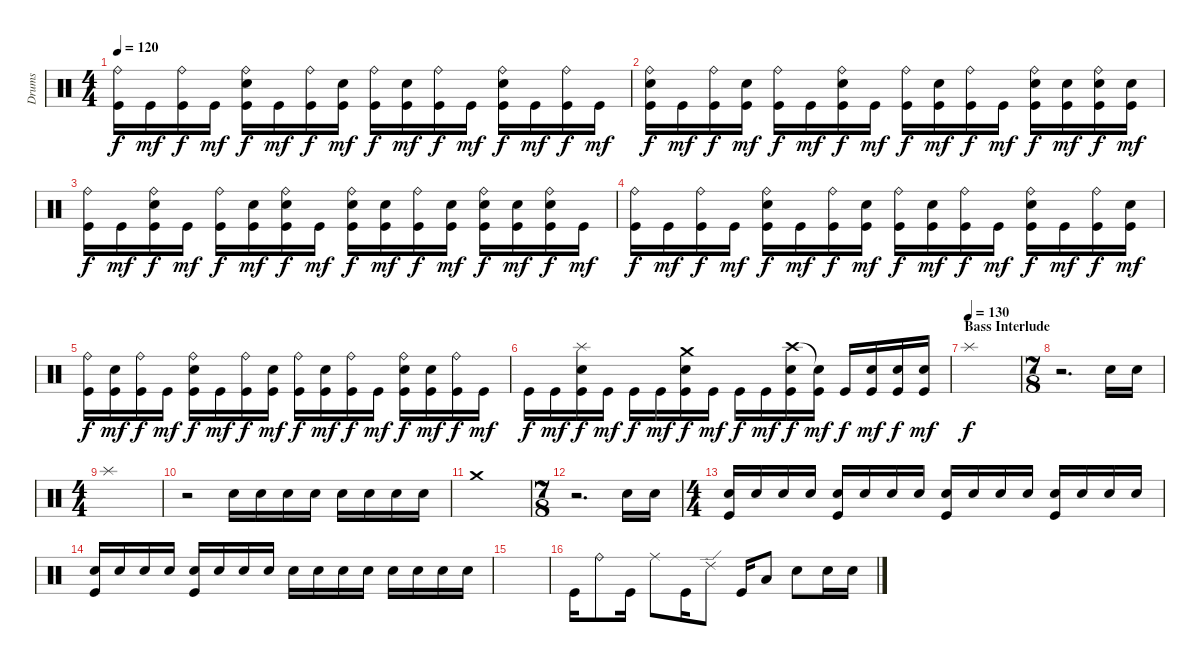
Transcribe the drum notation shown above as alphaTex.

\track ("Drums" "Drums") {instrument percussion}
\staff {score}
\articulation defaults
\ts (4 4)
\tempo 120
\clef neutral
\ks c
("Ride (bell)" "Kick (hit)").16{dy f} "Kick (hit)".16{dy mf} ("Ride (bell)" "Kick (hit)").16{dy f} "Kick (hit)".16{dy mf} ("Ride (bell)" "Snare (hit) 2" "Kick (hit)").16{dy f} "Kick (hit)".16{dy mf} ("Ride (bell)" "Kick (hit)").16{dy f} ("Snare (hit) 2" "Kick (hit)").16{dy mf} ("Ride (bell)" "Kick (hit)").16{dy f} ("Snare (hit) 2" "Kick (hit)").16{dy mf} ("Ride (bell)" "Kick (hit)").16{dy f} "Kick (hit)".16{dy mf} ("Ride (bell)" "Snare (hit) 2" "Kick (hit)").16{dy f} "Kick (hit)".16{dy mf} ("Ride (bell)" "Kick (hit)").16{dy f} "Kick (hit)".16{dy mf} |
("Ride (bell)" "Snare (hit) 2" "Kick (hit)").16{dy f} "Kick (hit)".16{dy mf} ("Ride (bell)" "Kick (hit)").16{dy f} ("Snare (hit) 2" "Kick (hit)").16{dy mf} ("Ride (bell)" "Kick (hit)").16{dy f} "Kick (hit)".16{dy mf} ("Ride (bell)" "Snare (hit) 2" "Kick (hit)").16{dy f} "Kick (hit)".16{dy mf} ("Ride (bell)" "Kick (hit)").16{dy f} ("Snare (hit) 2" "Kick (hit)").16{dy mf} ("Ride (bell)" "Kick (hit)").16{dy f} "Kick (hit)".16{dy mf} ("Ride (bell)" "Snare (hit) 2" "Kick (hit)").16{dy f} ("Snare (hit) 2" "Kick (hit)").16{dy mf} ("Ride (bell)" "Snare (hit) 2" "Kick (hit)").16{dy f} ("Snare (hit) 2" "Kick (hit)").16{dy mf} |
("Ride (bell)" "Kick (hit)").16{dy f} "Kick (hit)".16{dy mf} ("Ride (bell)" "Snare (hit) 2" "Kick (hit)").16{dy f} "Kick (hit)".16{dy mf} ("Ride (bell)" "Kick (hit)").16{dy f} ("Snare (hit) 2" "Kick (hit)").16{dy mf} ("Ride (bell)" "Snare (hit) 2" "Kick (hit)").16{dy f} "Kick (hit)".16{dy mf} ("Ride (bell)" "Snare (hit) 2" "Kick (hit)").16{dy f} ("Snare (hit) 2" "Kick (hit)").16{dy mf} ("Ride (bell)" "Kick (hit)").16{dy f} ("Snare (hit) 2" "Kick (hit)").16{dy mf} ("Ride (bell)" "Snare (hit) 2" "Kick (hit)").16{dy f} ("Snare (hit) 2" "Kick (hit)").16{dy mf} ("Ride (bell)" "Snare (hit) 2" "Kick (hit)").16{dy f} "Kick (hit)".16{dy mf} |
("Ride (bell)" "Kick (hit)").16{dy f} "Kick (hit)".16{dy mf} ("Ride (bell)" "Kick (hit)").16{dy f} "Kick (hit)".16{dy mf} ("Ride (bell)" "Snare (hit) 2" "Kick (hit)").16{dy f} "Kick (hit)".16{dy mf} ("Ride (bell)" "Kick (hit)").16{dy f} ("Snare (hit) 2" "Kick (hit)").16{dy mf} ("Ride (bell)" "Kick (hit)").16{dy f} ("Snare (hit) 2" "Kick (hit)").16{dy mf} ("Ride (bell)" "Kick (hit)").16{dy f} "Kick (hit)".16{dy mf} ("Ride (bell)" "Snare (hit) 2" "Kick (hit)").16{dy f} "Kick (hit)".16{dy mf} ("Ride (bell)" "Kick (hit)").16{dy f} ("Snare (hit) 2" "Kick (hit)").16{dy mf} |
("Ride (bell)" "Kick (hit)").16{dy f} ("Snare (hit) 2" "Kick (hit)").16{dy mf} ("Ride (bell)" "Kick (hit)").16{dy f} "Kick (hit)".16{dy mf} ("Ride (bell)" "Snare (hit) 2" "Kick (hit)").16{dy f} "Kick (hit)".16{dy mf} ("Ride (bell)" "Kick (hit)").16{dy f} ("Snare (hit) 2" "Kick (hit)").16{dy mf} ("Ride (bell)" "Kick (hit)").16{dy f} ("Snare (hit) 2" "Kick (hit)").16{dy mf} ("Ride (bell)" "Kick (hit)").16{dy f} "Kick (hit)".16{dy mf} ("Ride (bell)" "Snare (hit) 2" "Kick (hit)").16{dy f} ("Snare (hit) 2" "Kick (hit)").16{dy mf} ("Ride (bell)" "Kick (hit)").16{dy f} "Kick (hit)".16{dy mf} |
"Kick (hit)".16{dy f} "Kick (hit)".16{dy mf} ("Splash (hit)" "Snare (hit) 2" "Kick (hit)").16{dy f} "Kick (hit)".16{dy mf} "Kick (hit)".16{dy f} "Kick (hit)".16{dy mf} ("Crash medium (hit)" "Snare (hit) 2" "Kick (hit)").16{dy f} "Kick (hit)".16{dy mf} "Kick (hit)".16{dy f} "Kick (hit)".16{dy mf} ("Crash high (hit)" "Snare (hit) 2" "Kick (hit)").16{dy f} ("Snare (hit)"{t} "Kick (hit)").16{dy mf} "Kick (hit)".16{dy f} ("Snare (hit) 2" "Kick (hit)").16{dy mf} ("Snare (hit) 2" "Kick (hit)").16{dy f} ("Snare (hit) 2" "Kick (hit)").16{dy mf} |
\section ("" "Bass Interlude")
\tempo (130)
"Splash (hit)".1{dy f} |
\ts (7 8)
r.2{d} "Snare (hit) 2".16 "Snare (hit) 2".16 |
\ts (4 4)
"Splash (hit)".1 |
r.2 "Snare (hit) 2".16 "Snare (hit) 2".16 "Snare (hit) 2".16 "Snare (hit) 2".16 "Snare (hit) 2".16 "Snare (hit) 2".16 "Snare (hit) 2".16 "Snare (hit) 2".16 |
"Crash medium (hit)".1 |
\ts (7 8)
r.2{d} "Snare (hit) 2".16 "Snare (hit) 2".16 |
\ts (4 4)
("Snare (hit) 2" "Kick (hit)").16 "Snare (hit) 2".16 "Snare (hit) 2".16 "Snare (hit) 2".16 ("Snare (hit) 2" "Kick (hit)").16 "Snare (hit) 2".16 "Snare (hit) 2".16 "Snare (hit) 2".16 ("Snare (hit) 2" "Kick (hit)").16 "Snare (hit) 2".16 "Snare (hit) 2".16 "Snare (hit) 2".16 ("Snare (hit) 2" "Kick (hit)").16 "Snare (hit) 2".16 "Snare (hit) 2".16 "Snare (hit) 2".16 |
("Snare (hit) 2" "Kick (hit)").16 "Snare (hit) 2".16 "Snare (hit) 2".16 "Snare (hit) 2".16 ("Snare (hit) 2" "Kick (hit)").16 "Snare (hit) 2".16 "Snare (hit) 2".16 "Snare (hit) 2".16 "Snare (hit) 2".16 "Snare (hit) 2".16 "Snare (hit) 2".16 "Snare (hit) 2".16 "Snare (hit) 2".16 "Snare (hit) 2".16 "Snare (hit) 2".16 "Snare (hit) 2".16 |
|
"Kick (hit)".16 "Ride (bell)".8 "Kick (hit)".16 "Ride (middle)".8 "Kick (hit)".16 "Ride (edge) 2".8 "Kick (hit)".16 "Low Tom (hit)".8 "Snare (hit) 2".8 "Snare (hit) 2".16 "Snare (hit) 2".16
